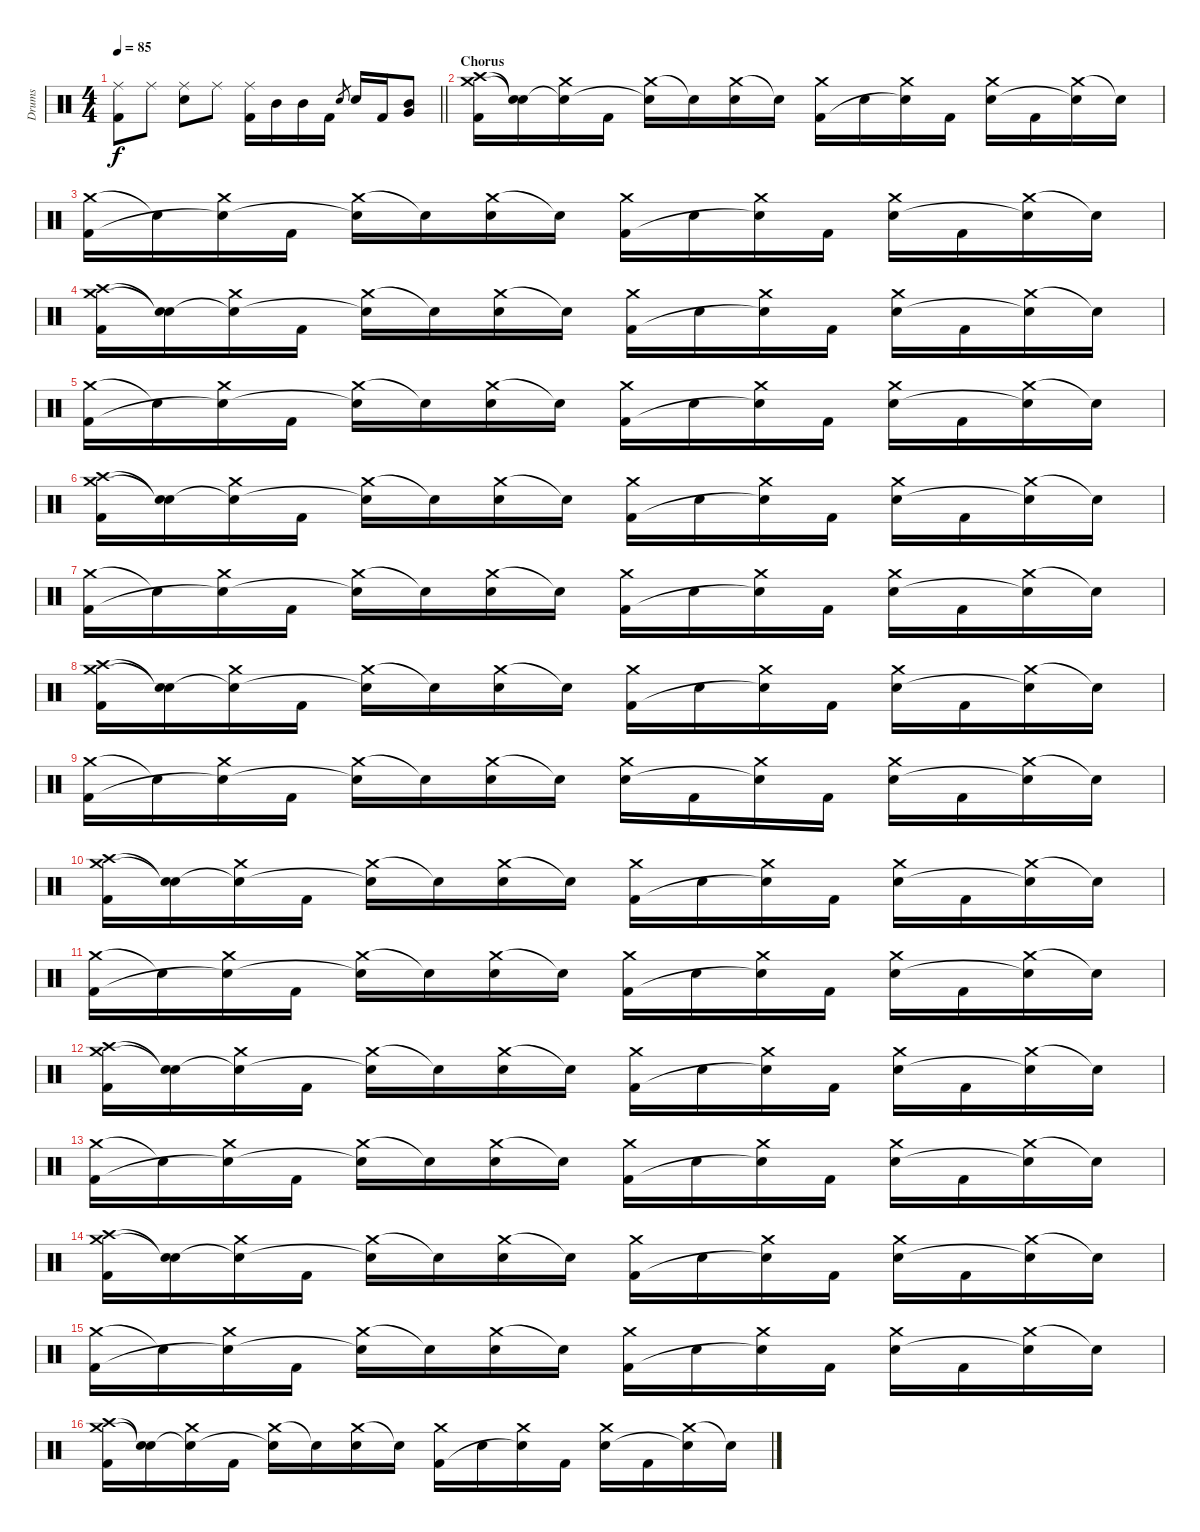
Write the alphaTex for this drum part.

\track ("Drums" "Drums") {instrument percussion}
\staff {score}
\articulation defaults
\ts (4 4)
\tempo 85
\clef neutral
\barLineRight lightlight
\ks c
("Ride (middle)" "Kick (hit) 2").8{dy f} "Ride (middle)".8 ("Ride (middle)" "Snare (hit) 2").8 "Ride (middle)".8 ("Ride (middle)" "Kick (hit) 2").16 "Mid Tom (hit)".16 "Mid Tom (hit)".16 "Kick (hit) 2".16 "Snare (hit) 2".8{gr} "Snare (hit) 2".16 "Kick (hit) 2".16 ("Mid Tom (hit)" "Very Low Tom (hit)").8 |
\section ("" "Chorus")
("Crash high (hit)" "Crash medium (hit)" "Kick (hit) 2").16 ("Snare (hit)"{t} "Snare (hit)"{t}).16 ("Crash medium (hit)" "Snare (hit)"{t}).16 "Kick (hit) 2".16 ("Crash medium (hit)" "Snare (hit)"{t}).16 "Snare (hit)"{t}.16 ("Crash medium (hit)" "Snare (hit) 2").16 "Snare (hit)"{t}.16 ("Crash medium (hit)" "Kick (hit) 2").16 "Snare (hit) 2".16 ("Crash medium (hit)" "Snare (hit)"{t}).16 "Kick (hit) 2".16 ("Crash medium (hit)" "Snare (hit) 2").16 "Kick (hit) 2".16 ("Crash medium (hit)" "Snare (hit)"{t}).16 "Snare (hit)"{t}.16 |
("Crash medium (hit)" "Kick (hit) 2").16 "Snare (hit)"{t}.16 ("Crash medium (hit)" "Snare (hit)"{t}).16 "Kick (hit) 2".16 ("Crash medium (hit)" "Snare (hit)"{t}).16 "Snare (hit)"{t}.16 ("Crash medium (hit)" "Snare (hit) 2").16 "Snare (hit)"{t}.16 ("Crash medium (hit)" "Kick (hit) 2").16 "Snare (hit) 2".16 ("Crash medium (hit)" "Snare (hit)"{t}).16 "Kick (hit) 2".16 ("Crash medium (hit)" "Snare (hit) 2").16 "Kick (hit) 2".16 ("Crash medium (hit)" "Snare (hit)"{t}).16 "Snare (hit)"{t}.16 |
("Crash high (hit)" "Crash medium (hit)" "Kick (hit) 2").16 ("Snare (hit)"{t} "Snare (hit)"{t}).16 ("Crash medium (hit)" "Snare (hit)"{t}).16 "Kick (hit) 2".16 ("Crash medium (hit)" "Snare (hit)"{t}).16 "Snare (hit)"{t}.16 ("Crash medium (hit)" "Snare (hit) 2").16 "Snare (hit)"{t}.16 ("Crash medium (hit)" "Kick (hit) 2").16 "Snare (hit) 2".16 ("Crash medium (hit)" "Snare (hit)"{t}).16 "Kick (hit) 2".16 ("Crash medium (hit)" "Snare (hit) 2").16 "Kick (hit) 2".16 ("Crash medium (hit)" "Snare (hit)"{t}).16 "Snare (hit)"{t}.16 |
("Crash medium (hit)" "Kick (hit) 2").16 "Snare (hit)"{t}.16 ("Crash medium (hit)" "Snare (hit)"{t}).16 "Kick (hit) 2".16 ("Crash medium (hit)" "Snare (hit)"{t}).16 "Snare (hit)"{t}.16 ("Crash medium (hit)" "Snare (hit) 2").16 "Snare (hit)"{t}.16 ("Crash medium (hit)" "Kick (hit) 2").16 "Snare (hit) 2".16 ("Crash medium (hit)" "Snare (hit)"{t}).16 "Kick (hit) 2".16 ("Crash medium (hit)" "Snare (hit) 2").16 "Kick (hit) 2".16 ("Crash medium (hit)" "Snare (hit)"{t}).16 "Snare (hit)"{t}.16 |
("Crash high (hit)" "Crash medium (hit)" "Kick (hit) 2").16 ("Snare (hit)"{t} "Snare (hit)"{t}).16 ("Crash medium (hit)" "Snare (hit)"{t}).16 "Kick (hit) 2".16 ("Crash medium (hit)" "Snare (hit)"{t}).16 "Snare (hit)"{t}.16 ("Crash medium (hit)" "Snare (hit) 2").16 "Snare (hit)"{t}.16 ("Crash medium (hit)" "Kick (hit) 2").16 "Snare (hit) 2".16 ("Crash medium (hit)" "Snare (hit)"{t}).16 "Kick (hit) 2".16 ("Crash medium (hit)" "Snare (hit) 2").16 "Kick (hit) 2".16 ("Crash medium (hit)" "Snare (hit)"{t}).16 "Snare (hit)"{t}.16 |
("Crash medium (hit)" "Kick (hit) 2").16 "Snare (hit)"{t}.16 ("Crash medium (hit)" "Snare (hit)"{t}).16 "Kick (hit) 2".16 ("Crash medium (hit)" "Snare (hit)"{t}).16 "Snare (hit)"{t}.16 ("Crash medium (hit)" "Snare (hit) 2").16 "Snare (hit)"{t}.16 ("Crash medium (hit)" "Kick (hit) 2").16 "Snare (hit) 2".16 ("Crash medium (hit)" "Snare (hit)"{t}).16 "Kick (hit) 2".16 ("Crash medium (hit)" "Snare (hit) 2").16 "Kick (hit) 2".16 ("Crash medium (hit)" "Snare (hit)"{t}).16 "Snare (hit)"{t}.16 |
("Crash high (hit)" "Crash medium (hit)" "Kick (hit) 2").16 ("Snare (hit)"{t} "Snare (hit)"{t}).16 ("Crash medium (hit)" "Snare (hit)"{t}).16 "Kick (hit) 2".16 ("Crash medium (hit)" "Snare (hit)"{t}).16 "Snare (hit)"{t}.16 ("Crash medium (hit)" "Snare (hit) 2").16 "Snare (hit)"{t}.16 ("Crash medium (hit)" "Kick (hit) 2").16 "Snare (hit) 2".16 ("Crash medium (hit)" "Snare (hit)"{t}).16 "Kick (hit) 2".16 ("Crash medium (hit)" "Snare (hit) 2").16 "Kick (hit) 2".16 ("Crash medium (hit)" "Snare (hit)"{t}).16 "Snare (hit)"{t}.16 |
("Crash medium (hit)" "Kick (hit) 2").16 "Snare (hit)"{t}.16 ("Crash medium (hit)" "Snare (hit)"{t}).16 "Kick (hit) 2".16 ("Crash medium (hit)" "Snare (hit)"{t}).16 "Snare (hit)"{t}.16 ("Crash medium (hit)" "Snare (hit) 2").16 "Snare (hit)"{t}.16 ("Crash medium (hit)" "Snare (hit) 2").16 "Kick (hit) 2".16 ("Crash medium (hit)" "Snare (hit)"{t}).16 "Kick (hit) 2".16 ("Crash medium (hit)" "Snare (hit) 2").16 "Kick (hit) 2".16 ("Crash medium (hit)" "Snare (hit)"{t}).16 "Snare (hit)"{t}.16 |
("Crash high (hit)" "Crash medium (hit)" "Kick (hit) 2").16 ("Snare (hit)"{t} "Snare (hit)"{t}).16 ("Crash medium (hit)" "Snare (hit)"{t}).16 "Kick (hit) 2".16 ("Crash medium (hit)" "Snare (hit)"{t}).16 "Snare (hit)"{t}.16 ("Crash medium (hit)" "Snare (hit) 2").16 "Snare (hit)"{t}.16 ("Crash medium (hit)" "Kick (hit) 2").16 "Snare (hit) 2".16 ("Crash medium (hit)" "Snare (hit)"{t}).16 "Kick (hit) 2".16 ("Crash medium (hit)" "Snare (hit) 2").16 "Kick (hit) 2".16 ("Crash medium (hit)" "Snare (hit)"{t}).16 "Snare (hit)"{t}.16 |
("Crash medium (hit)" "Kick (hit) 2").16 "Snare (hit)"{t}.16 ("Crash medium (hit)" "Snare (hit)"{t}).16 "Kick (hit) 2".16 ("Crash medium (hit)" "Snare (hit)"{t}).16 "Snare (hit)"{t}.16 ("Crash medium (hit)" "Snare (hit) 2").16 "Snare (hit)"{t}.16 ("Crash medium (hit)" "Kick (hit) 2").16 "Snare (hit) 2".16 ("Crash medium (hit)" "Snare (hit)"{t}).16 "Kick (hit) 2".16 ("Crash medium (hit)" "Snare (hit) 2").16 "Kick (hit) 2".16 ("Crash medium (hit)" "Snare (hit)"{t}).16 "Snare (hit)"{t}.16 |
("Crash high (hit)" "Crash medium (hit)" "Kick (hit) 2").16 ("Snare (hit)"{t} "Snare (hit)"{t}).16 ("Crash medium (hit)" "Snare (hit)"{t}).16 "Kick (hit) 2".16 ("Crash medium (hit)" "Snare (hit)"{t}).16 "Snare (hit)"{t}.16 ("Crash medium (hit)" "Snare (hit) 2").16 "Snare (hit)"{t}.16 ("Crash medium (hit)" "Kick (hit) 2").16 "Snare (hit) 2".16 ("Crash medium (hit)" "Snare (hit)"{t}).16 "Kick (hit) 2".16 ("Crash medium (hit)" "Snare (hit) 2").16 "Kick (hit) 2".16 ("Crash medium (hit)" "Snare (hit)"{t}).16 "Snare (hit)"{t}.16 |
("Crash medium (hit)" "Kick (hit) 2").16 "Snare (hit)"{t}.16 ("Crash medium (hit)" "Snare (hit)"{t}).16 "Kick (hit) 2".16 ("Crash medium (hit)" "Snare (hit)"{t}).16 "Snare (hit)"{t}.16 ("Crash medium (hit)" "Snare (hit) 2").16 "Snare (hit)"{t}.16 ("Crash medium (hit)" "Kick (hit) 2").16 "Snare (hit) 2".16 ("Crash medium (hit)" "Snare (hit)"{t}).16 "Kick (hit) 2".16 ("Crash medium (hit)" "Snare (hit) 2").16 "Kick (hit) 2".16 ("Crash medium (hit)" "Snare (hit)"{t}).16 "Snare (hit)"{t}.16 |
("Crash high (hit)" "Crash medium (hit)" "Kick (hit) 2").16 ("Snare (hit)"{t} "Snare (hit)"{t}).16 ("Crash medium (hit)" "Snare (hit)"{t}).16 "Kick (hit) 2".16 ("Crash medium (hit)" "Snare (hit)"{t}).16 "Snare (hit)"{t}.16 ("Crash medium (hit)" "Snare (hit) 2").16 "Snare (hit)"{t}.16 ("Crash medium (hit)" "Kick (hit) 2").16 "Snare (hit) 2".16 ("Crash medium (hit)" "Snare (hit)"{t}).16 "Kick (hit) 2".16 ("Crash medium (hit)" "Snare (hit) 2").16 "Kick (hit) 2".16 ("Crash medium (hit)" "Snare (hit)"{t}).16 "Snare (hit)"{t}.16 |
("Crash medium (hit)" "Kick (hit) 2").16 "Snare (hit)"{t}.16 ("Crash medium (hit)" "Snare (hit)"{t}).16 "Kick (hit) 2".16 ("Crash medium (hit)" "Snare (hit)"{t}).16 "Snare (hit)"{t}.16 ("Crash medium (hit)" "Snare (hit) 2").16 "Snare (hit)"{t}.16 ("Crash medium (hit)" "Kick (hit) 2").16 "Snare (hit) 2".16 ("Crash medium (hit)" "Snare (hit)"{t}).16 "Kick (hit) 2".16 ("Crash medium (hit)" "Snare (hit) 2").16 "Kick (hit) 2".16 ("Crash medium (hit)" "Snare (hit)"{t}).16 "Snare (hit)"{t}.16 |
("Crash high (hit)" "Crash medium (hit)" "Kick (hit) 2").16 ("Snare (hit)"{t} "Snare (hit)"{t}).16 ("Crash medium (hit)" "Snare (hit)"{t}).16 "Kick (hit) 2".16 ("Crash medium (hit)" "Snare (hit)"{t}).16 "Snare (hit)"{t}.16 ("Crash medium (hit)" "Snare (hit) 2").16 "Snare (hit)"{t}.16 ("Crash medium (hit)" "Kick (hit) 2").16 "Snare (hit) 2".16 ("Crash medium (hit)" "Snare (hit)"{t}).16 "Kick (hit) 2".16 ("Crash medium (hit)" "Snare (hit) 2").16 "Kick (hit) 2".16 ("Crash medium (hit)" "Snare (hit)"{t}).16 "Snare (hit)"{t}.16
